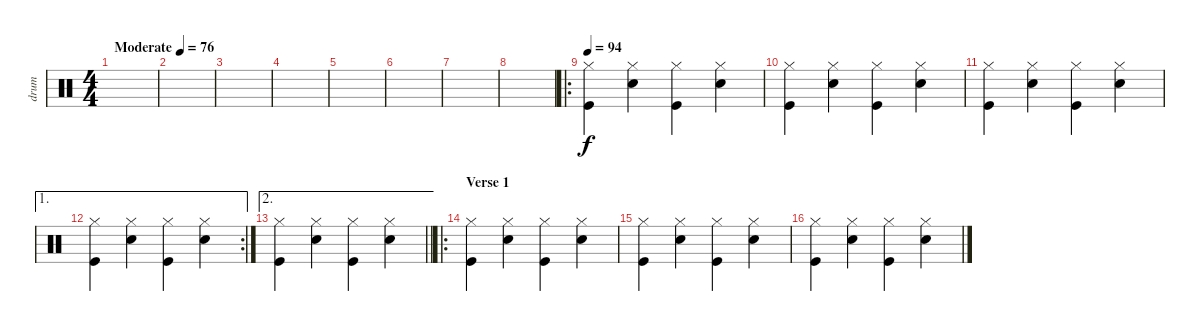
\track ("drum" "drum") {instrument percussion}
\staff {score}
\articulation defaults
\ts (4 4)
\tempo (76 "Moderate")
\clef neutral
\ks c
|
|
|
|
|
|
|
|
\ro
\tempo 94
("Hi-Hat (closed)" "Kick (hit)").4 ("Hi-Hat (closed)" "Snare (hit) 2").4 ("Hi-Hat (closed)" "Kick (hit)").4 ("Hi-Hat (closed)" "Snare (hit) 2").4 |
("Hi-Hat (closed)" "Kick (hit)").4 ("Hi-Hat (closed)" "Snare (hit) 2").4 ("Hi-Hat (closed)" "Kick (hit)").4 ("Hi-Hat (closed)" "Snare (hit) 2").4 |
("Hi-Hat (closed)" "Kick (hit)").4 ("Hi-Hat (closed)" "Snare (hit) 2").4 ("Hi-Hat (closed)" "Kick (hit)").4 ("Hi-Hat (closed)" "Snare (hit) 2").4 |
\ae 1
\rc 2
("Hi-Hat (closed)" "Kick (hit)").4 ("Hi-Hat (closed)" "Snare (hit) 2").4 ("Hi-Hat (closed)" "Kick (hit)").4 ("Hi-Hat (closed)" "Snare (hit) 2").4 |
\ae 2
\barLineRight lightlight
("Hi-Hat (closed)" "Kick (hit)").4 ("Hi-Hat (closed)" "Snare (hit) 2").4 ("Hi-Hat (closed)" "Kick (hit)").4 ("Hi-Hat (closed)" "Snare (hit) 2").4 |
\ro
\section ("" "Verse 1")
("Hi-Hat (closed)" "Kick (hit)").4 ("Hi-Hat (closed)" "Snare (hit) 2").4 ("Hi-Hat (closed)" "Kick (hit)").4 ("Hi-Hat (closed)" "Snare (hit) 2").4 |
("Hi-Hat (closed)" "Kick (hit)").4 ("Hi-Hat (closed)" "Snare (hit) 2").4 ("Hi-Hat (closed)" "Kick (hit)").4 ("Hi-Hat (closed)" "Snare (hit) 2").4 |
("Hi-Hat (closed)" "Kick (hit)").4 ("Hi-Hat (closed)" "Snare (hit) 2").4 ("Hi-Hat (closed)" "Kick (hit)").4 ("Hi-Hat (closed)" "Snare (hit) 2").4
